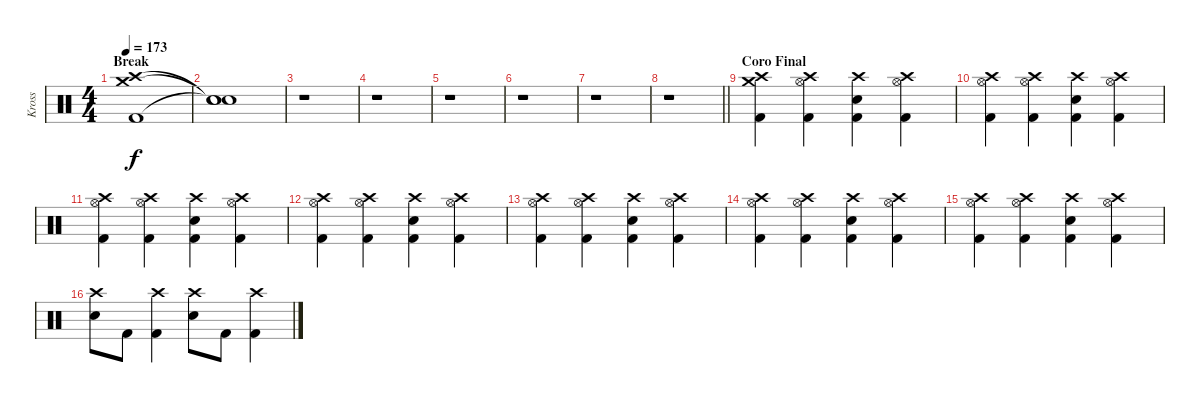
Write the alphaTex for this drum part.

\track ("Kross" "Kross") {instrument percussion}
\staff {score}
\articulation defaults
\ts (4 4)
\section ("" "Break")
\tempo 173
\clef neutral
\ks c
("Crash medium (hit)" "Crash high (hit)" "Kick (hit) 2").1{dy f} |
("Snare (hit)"{t} "Snare (hit)"{t} "Snare (hit)"{t}).1 |
r.1 |
r.1 |
r.1 |
r.1 |
r.1 |
\barLineRight lightlight
r.1 |
\section ("" "Coro Final")
("Crash medium (hit)" "Crash high (hit)" "Kick (hit) 2").4 ("Crash high (hit)" "Hi-Hat (open)" "Kick (hit) 2").4 ("Crash high (hit)" "Electric Snare (hit)" "Kick (hit) 2").4 ("Crash high (hit)" "Hi-Hat (open)" "Kick (hit) 2").4 |
("Crash high (hit)" "Hi-Hat (open)" "Kick (hit) 2").4 ("Crash high (hit)" "Hi-Hat (open)" "Kick (hit) 2").4 ("Crash high (hit)" "Electric Snare (hit)" "Kick (hit) 2").4 ("Crash high (hit)" "Hi-Hat (open)" "Kick (hit) 2").4 |
("Crash high (hit)" "Hi-Hat (open)" "Kick (hit) 2").4 ("Crash high (hit)" "Hi-Hat (open)" "Kick (hit) 2").4 ("Crash high (hit)" "Electric Snare (hit)" "Kick (hit) 2").4 ("Crash high (hit)" "Hi-Hat (open)" "Kick (hit) 2").4 |
("Crash high (hit)" "Hi-Hat (open)" "Kick (hit) 2").4 ("Crash high (hit)" "Hi-Hat (open)" "Kick (hit) 2").4 ("Crash high (hit)" "Electric Snare (hit)" "Kick (hit) 2").4 ("Crash high (hit)" "Hi-Hat (open)" "Kick (hit) 2").4 |
("Crash high (hit)" "Hi-Hat (open)" "Kick (hit) 2").4 ("Crash high (hit)" "Hi-Hat (open)" "Kick (hit) 2").4 ("Crash high (hit)" "Electric Snare (hit)" "Kick (hit) 2").4 ("Crash high (hit)" "Hi-Hat (open)" "Kick (hit) 2").4 |
("Crash high (hit)" "Hi-Hat (open)" "Kick (hit) 2").4 ("Crash high (hit)" "Hi-Hat (open)" "Kick (hit) 2").4 ("Crash high (hit)" "Electric Snare (hit)" "Kick (hit) 2").4 ("Crash high (hit)" "Hi-Hat (open)" "Kick (hit) 2").4 |
("Crash high (hit)" "Hi-Hat (open)" "Kick (hit) 2").4 ("Crash high (hit)" "Hi-Hat (open)" "Kick (hit) 2").4 ("Crash high (hit)" "Electric Snare (hit)" "Kick (hit) 2").4 ("Crash high (hit)" "Hi-Hat (open)" "Kick (hit) 2").4 |
("Crash high (hit)" "Electric Snare (hit)").8 "Kick (hit) 2".8 ("Crash high (hit)" "Kick (hit) 2").4 ("Crash high (hit)" "Electric Snare (hit)").8 "Kick (hit) 2".8 ("Crash high (hit)" "Kick (hit) 2").4
